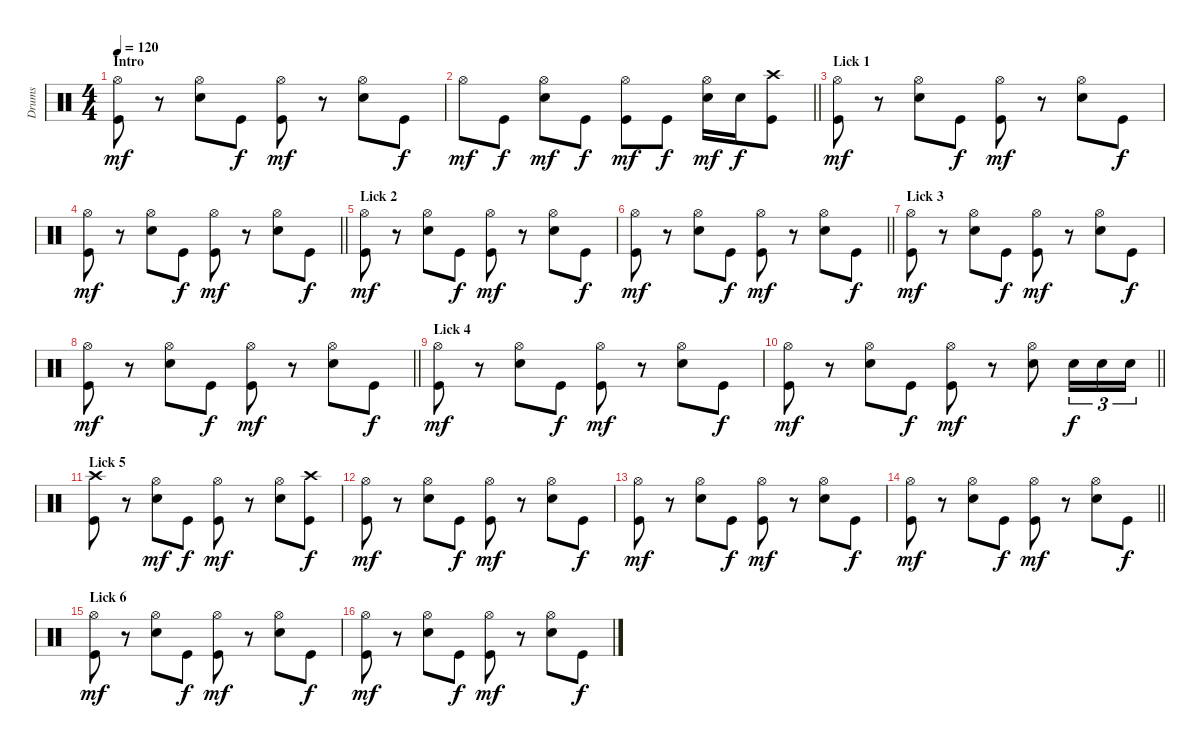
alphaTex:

\track ("Drums" "Drums") {instrument percussion}
\staff {score}
\articulation defaults
\ts (4 4)
\section ("" "Intro")
\tempo 120
\clef neutral
\ks c
("Hi-Hat (open)" "Kick (hit)").8{dy mf} r.8 ("Hi-Hat (open)" "Electric Snare (hit)").8 "Kick (hit)".8{dy f} ("Hi-Hat (open)" "Kick (hit)").8{dy mf} r.8 ("Hi-Hat (open)" "Electric Snare (hit)").8 "Kick (hit)".8{dy f} |
\barLineRight lightlight "Hi-Hat (open)".8{dy mf} "Kick (hit)".8{dy f}
("Hi-Hat (open)" "Electric Snare (hit)").8{dy mf} "Kick (hit)".8{dy f} ("Hi-Hat (open)" "Kick (hit)").8{dy mf} "Kick (hit)".8{dy f} ("Hi-Hat (open)" "Electric Snare (hit)").16{dy mf} "Electric Snare (hit)".16{dy f} ("Crash high (hit)" "Kick (hit)").8 |
\section ("" "Lick 1")
("Hi-Hat (open)" "Kick (hit)").8{dy mf} r.8 ("Hi-Hat (open)" "Electric Snare (hit)").8 "Kick (hit)".8{dy f} ("Hi-Hat (open)" "Kick (hit)").8{dy mf} r.8 ("Hi-Hat (open)" "Electric Snare (hit)").8 "Kick (hit)".8{dy f} |
\barLineRight lightlight
("Hi-Hat (open)" "Kick (hit)").8{dy mf} r.8 ("Hi-Hat (open)" "Electric Snare (hit)").8 "Kick (hit)".8{dy f} ("Hi-Hat (open)" "Kick (hit)").8{dy mf} r.8 ("Hi-Hat (open)" "Electric Snare (hit)").8 "Kick (hit)".8{dy f} |
\section ("" "Lick 2")
("Hi-Hat (open)" "Kick (hit)").8{dy mf} r.8 ("Hi-Hat (open)" "Electric Snare (hit)").8 "Kick (hit)".8{dy f} ("Hi-Hat (open)" "Kick (hit)").8{dy mf} r.8 ("Hi-Hat (open)" "Electric Snare (hit)").8 "Kick (hit)".8{dy f} |
\barLineRight lightlight
("Hi-Hat (open)" "Kick (hit)").8{dy mf} r.8 ("Hi-Hat (open)" "Electric Snare (hit)").8 "Kick (hit)".8{dy f} ("Hi-Hat (open)" "Kick (hit)").8{dy mf} r.8 ("Hi-Hat (open)" "Electric Snare (hit)").8 "Kick (hit)".8{dy f} |
\section ("" "Lick 3")
("Hi-Hat (open)" "Kick (hit)").8{dy mf} r.8 ("Hi-Hat (open)" "Electric Snare (hit)").8 "Kick (hit)".8{dy f} ("Hi-Hat (open)" "Kick (hit)").8{dy mf} r.8 ("Hi-Hat (open)" "Electric Snare (hit)").8 "Kick (hit)".8{dy f} |
\barLineRight lightlight
("Hi-Hat (open)" "Kick (hit)").8{dy mf} r.8 ("Hi-Hat (open)" "Electric Snare (hit)").8 "Kick (hit)".8{dy f} ("Hi-Hat (open)" "Kick (hit)").8{dy mf} r.8 ("Hi-Hat (open)" "Electric Snare (hit)").8 "Kick (hit)".8{dy f} |
\section ("" "Lick 4")
("Hi-Hat (open)" "Kick (hit)").8{dy mf} r.8 ("Hi-Hat (open)" "Electric Snare (hit)").8 "Kick (hit)".8{dy f} ("Hi-Hat (open)" "Kick (hit)").8{dy mf} r.8 ("Hi-Hat (open)" "Electric Snare (hit)").8 "Kick (hit)".8{dy f} |
\barLineRight lightlight
("Hi-Hat (open)" "Kick (hit)").8{dy mf} r.8 ("Hi-Hat (open)" "Electric Snare (hit)").8 "Kick (hit)".8{dy f} ("Hi-Hat (open)" "Kick (hit)").8{dy mf} r.8 ("Hi-Hat (open)" "Electric Snare (hit)").8 "Electric Snare (hit)".16{tu (3 2) dy f} "Electric Snare (hit)".16{tu (3 2)} "Electric Snare (hit)".16{tu (3 2)} |
\section ("" "Lick 5")
("Crash high (hit)" "Kick (hit)").8 r.8 ("Hi-Hat (open)" "Electric Snare (hit)").8{dy mf} "Kick (hit)".8{dy f} ("Hi-Hat (open)" "Kick (hit)").8{dy mf} r.8 ("Hi-Hat (open)" "Electric Snare (hit)").8 ("Crash high (hit)" "Kick (hit)").8{dy f} |
("Hi-Hat (open)" "Kick (hit)").8{dy mf} r.8 ("Hi-Hat (open)" "Electric Snare (hit)").8 "Kick (hit)".8{dy f} ("Hi-Hat (open)" "Kick (hit)").8{dy mf} r.8 ("Hi-Hat (open)" "Electric Snare (hit)").8 "Kick (hit)".8{dy f} |
("Hi-Hat (open)" "Kick (hit)").8{dy mf} r.8 ("Hi-Hat (open)" "Electric Snare (hit)").8 "Kick (hit)".8{dy f} ("Hi-Hat (open)" "Kick (hit)").8{dy mf} r.8 ("Hi-Hat (open)" "Electric Snare (hit)").8 "Kick (hit)".8{dy f} |
\barLineRight lightlight
("Hi-Hat (open)" "Kick (hit)").8{dy mf} r.8 ("Hi-Hat (open)" "Electric Snare (hit)").8 "Kick (hit)".8{dy f} ("Hi-Hat (open)" "Kick (hit)").8{dy mf} r.8 ("Hi-Hat (open)" "Electric Snare (hit)").8 "Kick (hit)".8{dy f} |
\section ("" "Lick 6")
("Hi-Hat (open)" "Kick (hit)").8{dy mf} r.8 ("Hi-Hat (open)" "Electric Snare (hit)").8 "Kick (hit)".8{dy f} ("Hi-Hat (open)" "Kick (hit)").8{dy mf} r.8 ("Hi-Hat (open)" "Electric Snare (hit)").8 "Kick (hit)".8{dy f} |
("Hi-Hat (open)" "Kick (hit)").8{dy mf} r.8 ("Hi-Hat (open)" "Electric Snare (hit)").8 "Kick (hit)".8{dy f} ("Hi-Hat (open)" "Kick (hit)").8{dy mf} r.8 ("Hi-Hat (open)" "Electric Snare (hit)").8 "Kick (hit)".8{dy f}
